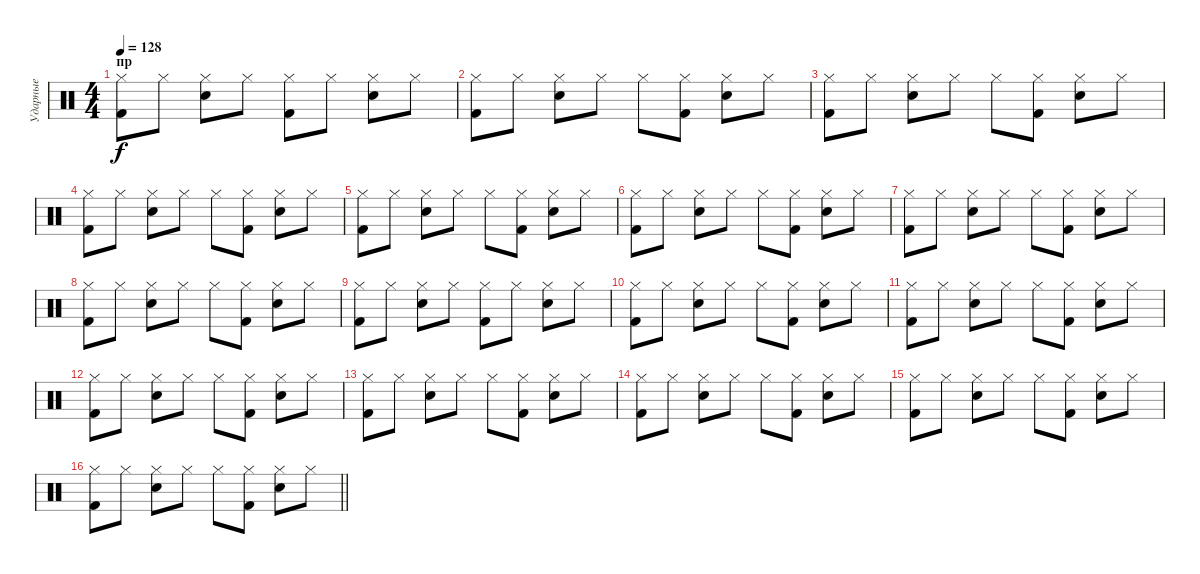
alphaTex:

\track ("Ударные" "Ударные") {instrument percussion}
\staff {score}
\articulation defaults
\ts (4 4)
\section ("" "пр")
\tempo 128
\clef neutral
\ks c
("Hi-Hat (closed)" "Kick (hit) 2").8{dy f} "Hi-Hat (closed)".8 ("Hi-Hat (closed)" "Snare (hit) 2").8 "Hi-Hat (closed)".8 ("Hi-Hat (closed)" "Kick (hit) 2").8 "Hi-Hat (closed)".8 ("Hi-Hat (closed)" "Snare (hit) 2").8 "Hi-Hat (closed)".8 |
("Hi-Hat (closed)" "Kick (hit) 2").8 "Hi-Hat (closed)".8 ("Hi-Hat (closed)" "Snare (hit) 2").8 "Hi-Hat (closed)".8 "Hi-Hat (closed)".8 ("Hi-Hat (closed)" "Kick (hit) 2").8 ("Hi-Hat (closed)" "Snare (hit) 2").8 "Hi-Hat (closed)".8 |
("Hi-Hat (closed)" "Kick (hit) 2").8 "Hi-Hat (closed)".8 ("Hi-Hat (closed)" "Snare (hit) 2").8 "Hi-Hat (closed)".8 "Hi-Hat (closed)".8 ("Hi-Hat (closed)" "Kick (hit) 2").8 ("Hi-Hat (closed)" "Snare (hit) 2").8 "Hi-Hat (closed)".8 |
("Hi-Hat (closed)" "Kick (hit) 2").8 "Hi-Hat (closed)".8 ("Hi-Hat (closed)" "Snare (hit) 2").8 "Hi-Hat (closed)".8 "Hi-Hat (closed)".8 ("Hi-Hat (closed)" "Kick (hit) 2").8 ("Hi-Hat (closed)" "Snare (hit) 2").8 "Hi-Hat (closed)".8 |
("Hi-Hat (closed)" "Kick (hit) 2").8 "Hi-Hat (closed)".8 ("Hi-Hat (closed)" "Snare (hit) 2").8 "Hi-Hat (closed)".8 "Hi-Hat (closed)".8 ("Hi-Hat (closed)" "Kick (hit) 2").8 ("Hi-Hat (closed)" "Snare (hit) 2").8 "Hi-Hat (closed)".8 |
("Hi-Hat (closed)" "Kick (hit) 2").8 "Hi-Hat (closed)".8 ("Hi-Hat (closed)" "Snare (hit) 2").8 "Hi-Hat (closed)".8 "Hi-Hat (closed)".8 ("Hi-Hat (closed)" "Kick (hit) 2").8 ("Hi-Hat (closed)" "Snare (hit) 2").8 "Hi-Hat (closed)".8 |
("Hi-Hat (closed)" "Kick (hit) 2").8 "Hi-Hat (closed)".8 ("Hi-Hat (closed)" "Snare (hit) 2").8 "Hi-Hat (closed)".8 "Hi-Hat (closed)".8 ("Hi-Hat (closed)" "Kick (hit) 2").8 ("Hi-Hat (closed)" "Snare (hit) 2").8 "Hi-Hat (closed)".8 |
("Hi-Hat (closed)" "Kick (hit) 2").8 "Hi-Hat (closed)".8 ("Hi-Hat (closed)" "Snare (hit) 2").8 "Hi-Hat (closed)".8 "Hi-Hat (closed)".8 ("Hi-Hat (closed)" "Kick (hit) 2").8 ("Hi-Hat (closed)" "Snare (hit) 2").8 "Hi-Hat (closed)".8 |
("Hi-Hat (closed)" "Kick (hit) 2").8 "Hi-Hat (closed)".8 ("Hi-Hat (closed)" "Snare (hit) 2").8 "Hi-Hat (closed)".8 ("Hi-Hat (closed)" "Kick (hit) 2").8 "Hi-Hat (closed)".8 ("Hi-Hat (closed)" "Snare (hit) 2").8 "Hi-Hat (closed)".8 |
("Hi-Hat (closed)" "Kick (hit) 2").8 "Hi-Hat (closed)".8 ("Hi-Hat (closed)" "Snare (hit) 2").8 "Hi-Hat (closed)".8 "Hi-Hat (closed)".8 ("Hi-Hat (closed)" "Kick (hit) 2").8 ("Hi-Hat (closed)" "Snare (hit) 2").8 "Hi-Hat (closed)".8 |
("Hi-Hat (closed)" "Kick (hit) 2").8 "Hi-Hat (closed)".8 ("Hi-Hat (closed)" "Snare (hit) 2").8 "Hi-Hat (closed)".8 "Hi-Hat (closed)".8 ("Hi-Hat (closed)" "Kick (hit) 2").8 ("Hi-Hat (closed)" "Snare (hit) 2").8 "Hi-Hat (closed)".8 |
("Hi-Hat (closed)" "Kick (hit) 2").8 "Hi-Hat (closed)".8 ("Hi-Hat (closed)" "Snare (hit) 2").8 "Hi-Hat (closed)".8 "Hi-Hat (closed)".8 ("Hi-Hat (closed)" "Kick (hit) 2").8 ("Hi-Hat (closed)" "Snare (hit) 2").8 "Hi-Hat (closed)".8 |
("Hi-Hat (closed)" "Kick (hit) 2").8 "Hi-Hat (closed)".8 ("Hi-Hat (closed)" "Snare (hit) 2").8 "Hi-Hat (closed)".8 "Hi-Hat (closed)".8 ("Hi-Hat (closed)" "Kick (hit) 2").8 ("Hi-Hat (closed)" "Snare (hit) 2").8 "Hi-Hat (closed)".8 |
("Hi-Hat (closed)" "Kick (hit) 2").8 "Hi-Hat (closed)".8 ("Hi-Hat (closed)" "Snare (hit) 2").8 "Hi-Hat (closed)".8 "Hi-Hat (closed)".8 ("Hi-Hat (closed)" "Kick (hit) 2").8 ("Hi-Hat (closed)" "Snare (hit) 2").8 "Hi-Hat (closed)".8 |
("Hi-Hat (closed)" "Kick (hit) 2").8 "Hi-Hat (closed)".8 ("Hi-Hat (closed)" "Snare (hit) 2").8 "Hi-Hat (closed)".8 "Hi-Hat (closed)".8 ("Hi-Hat (closed)" "Kick (hit) 2").8 ("Hi-Hat (closed)" "Snare (hit) 2").8 "Hi-Hat (closed)".8 |
\barLineRight lightlight
("Hi-Hat (closed)" "Kick (hit) 2").8 "Hi-Hat (closed)".8 ("Hi-Hat (closed)" "Snare (hit) 2").8 "Hi-Hat (closed)".8 "Hi-Hat (closed)".8 ("Hi-Hat (closed)" "Kick (hit) 2").8 ("Hi-Hat (closed)" "Snare (hit) 2").8 "Hi-Hat (closed)".8
